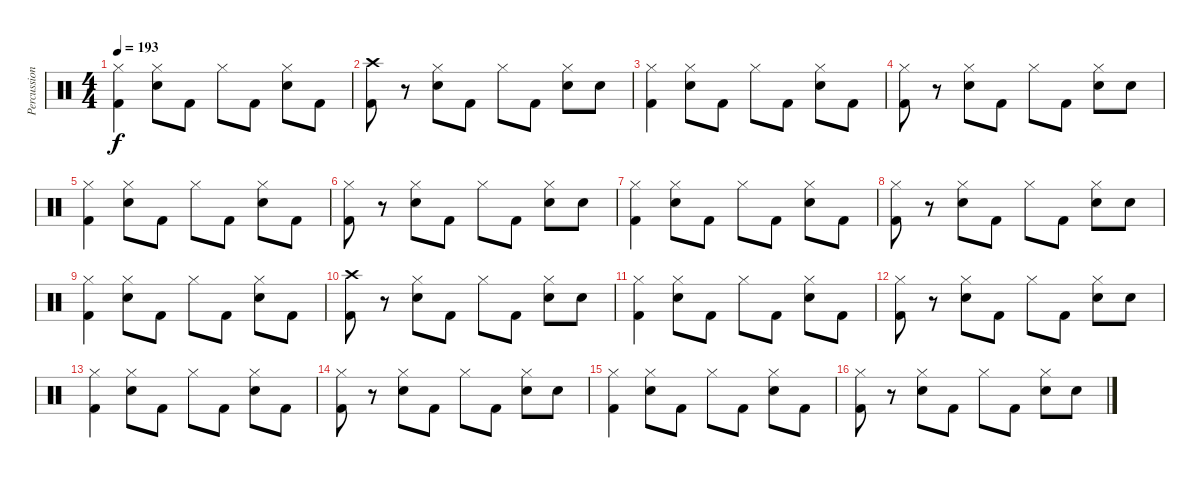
\track ("Percussioni" "Percussion") {instrument percussion}
\staff {score}
\articulation defaults
\ts (4 4)
\tempo 193
\clef neutral
\ks c
("Kick (hit) 2" "Hi-Hat (closed)").4{dy f} ("Electric Snare (hit)" "Hi-Hat (closed)").8 "Kick (hit) 2".8 "Hi-Hat (closed)".8 "Kick (hit) 2".8 ("Electric Snare (hit)" "Hi-Hat (closed)").8 "Kick (hit) 2".8 |
("Kick (hit) 2" "Crash high (hit)").8 r.8 ("Electric Snare (hit)" "Hi-Hat (closed)").8 "Kick (hit) 2".8 "Hi-Hat (closed)".8 "Kick (hit) 2".8 ("Electric Snare (hit)" "Hi-Hat (closed)").8 "Electric Snare (hit)".8 |
("Kick (hit) 2" "Hi-Hat (closed)").4 ("Electric Snare (hit)" "Hi-Hat (closed)").8 "Kick (hit) 2".8 "Hi-Hat (closed)".8 "Kick (hit) 2".8 ("Electric Snare (hit)" "Hi-Hat (closed)").8 "Kick (hit) 2".8 |
("Kick (hit) 2" "Hi-Hat (closed)").8 r.8 ("Electric Snare (hit)" "Hi-Hat (closed)").8 "Kick (hit) 2".8 "Hi-Hat (closed)".8 "Kick (hit) 2".8 ("Electric Snare (hit)" "Hi-Hat (closed)").8 "Electric Snare (hit)".8 |
("Kick (hit) 2" "Hi-Hat (closed)").4 ("Electric Snare (hit)" "Hi-Hat (closed)").8 "Kick (hit) 2".8 "Hi-Hat (closed)".8 "Kick (hit) 2".8 ("Electric Snare (hit)" "Hi-Hat (closed)").8 "Kick (hit) 2".8 |
("Kick (hit) 2" "Hi-Hat (closed)").8 r.8 ("Electric Snare (hit)" "Hi-Hat (closed)").8 "Kick (hit) 2".8 "Hi-Hat (closed)".8 "Kick (hit) 2".8 ("Electric Snare (hit)" "Hi-Hat (closed)").8 "Electric Snare (hit)".8 |
("Kick (hit) 2" "Hi-Hat (closed)").4 ("Electric Snare (hit)" "Hi-Hat (closed)").8 "Kick (hit) 2".8 "Hi-Hat (closed)".8 "Kick (hit) 2".8 ("Electric Snare (hit)" "Hi-Hat (closed)").8 "Kick (hit) 2".8 |
("Kick (hit) 2" "Hi-Hat (closed)").8 r.8 ("Electric Snare (hit)" "Hi-Hat (closed)").8 "Kick (hit) 2".8 "Hi-Hat (closed)".8 "Kick (hit) 2".8 ("Electric Snare (hit)" "Hi-Hat (closed)").8 "Electric Snare (hit)".8 |
("Kick (hit) 2" "Hi-Hat (closed)").4 ("Electric Snare (hit)" "Hi-Hat (closed)").8 "Kick (hit) 2".8 "Hi-Hat (closed)".8 "Kick (hit) 2".8 ("Electric Snare (hit)" "Hi-Hat (closed)").8 "Kick (hit) 2".8 |
("Kick (hit) 2" "Crash high (hit)").8 r.8 ("Electric Snare (hit)" "Hi-Hat (closed)").8 "Kick (hit) 2".8 "Hi-Hat (closed)".8 "Kick (hit) 2".8 ("Electric Snare (hit)" "Hi-Hat (closed)").8 "Electric Snare (hit)".8 |
("Kick (hit) 2" "Hi-Hat (closed)").4 ("Electric Snare (hit)" "Hi-Hat (closed)").8 "Kick (hit) 2".8 "Hi-Hat (closed)".8 "Kick (hit) 2".8 ("Electric Snare (hit)" "Hi-Hat (closed)").8 "Kick (hit) 2".8 |
("Kick (hit) 2" "Hi-Hat (closed)").8 r.8 ("Electric Snare (hit)" "Hi-Hat (closed)").8 "Kick (hit) 2".8 "Hi-Hat (closed)".8 "Kick (hit) 2".8 ("Electric Snare (hit)" "Hi-Hat (closed)").8 "Electric Snare (hit)".8 |
("Kick (hit) 2" "Hi-Hat (closed)").4 ("Electric Snare (hit)" "Hi-Hat (closed)").8 "Kick (hit) 2".8 "Hi-Hat (closed)".8 "Kick (hit) 2".8 ("Electric Snare (hit)" "Hi-Hat (closed)").8 "Kick (hit) 2".8 |
("Kick (hit) 2" "Hi-Hat (closed)").8 r.8 ("Electric Snare (hit)" "Hi-Hat (closed)").8 "Kick (hit) 2".8 "Hi-Hat (closed)".8 "Kick (hit) 2".8 ("Electric Snare (hit)" "Hi-Hat (closed)").8 "Electric Snare (hit)".8 |
("Kick (hit) 2" "Hi-Hat (closed)").4 ("Electric Snare (hit)" "Hi-Hat (closed)").8 "Kick (hit) 2".8 "Hi-Hat (closed)".8 "Kick (hit) 2".8 ("Electric Snare (hit)" "Hi-Hat (closed)").8 "Kick (hit) 2".8 |
("Kick (hit) 2" "Hi-Hat (closed)").8 r.8 ("Electric Snare (hit)" "Hi-Hat (closed)").8 "Kick (hit) 2".8 "Hi-Hat (closed)".8 "Kick (hit) 2".8 ("Electric Snare (hit)" "Hi-Hat (closed)").8 "Electric Snare (hit)".8
